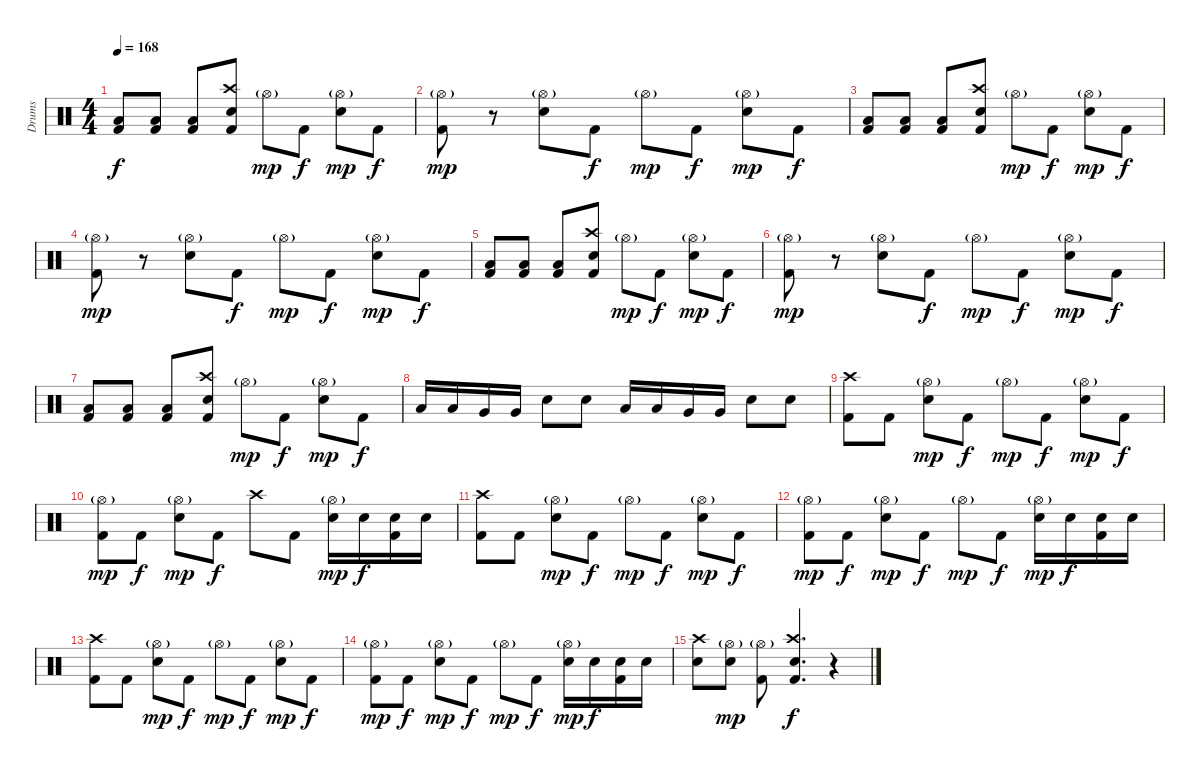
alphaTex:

\track ("Drums" "Drums") {instrument percussion}
\staff {score}
\articulation defaults
\ts (4 4)
\tempo 168
\clef neutral
\ks c
("Low Tom (hit)" "Kick (hit) 2").8{dy f} ("Low Tom (hit)" "Kick (hit) 2").8 ("Low Tom (hit)" "Kick (hit) 2").8 ("Crash high (hit)" "Snare (hit) 2" "Kick (hit) 2").8 "Hi-Hat (open)"{g}.8{dy mp} "Kick (hit) 2".8{dy f} ("Hi-Hat (open)"{g} "Snare (hit) 2").8{dy mp} "Kick (hit) 2".8{dy f} |
("Hi-Hat (open)"{g} "Kick (hit) 2").8{dy mp} r.8 ("Hi-Hat (open)"{g} "Snare (hit) 2").8 "Kick (hit) 2".8{dy f} "Hi-Hat (open)"{g}.8{dy mp} "Kick (hit) 2".8{dy f} ("Hi-Hat (open)"{g} "Snare (hit) 2").8{dy mp} "Kick (hit) 2".8{dy f} |
("Low Tom (hit)" "Kick (hit) 2").8 ("Low Tom (hit)" "Kick (hit) 2").8 ("Low Tom (hit)" "Kick (hit) 2").8 ("Crash high (hit)" "Snare (hit) 2" "Kick (hit) 2").8 "Hi-Hat (open)"{g}.8{dy mp} "Kick (hit) 2".8{dy f} ("Hi-Hat (open)"{g} "Snare (hit) 2").8{dy mp} "Kick (hit) 2".8{dy f} |
("Hi-Hat (open)"{g} "Kick (hit) 2").8{dy mp} r.8 ("Hi-Hat (open)"{g} "Snare (hit) 2").8 "Kick (hit) 2".8{dy f} "Hi-Hat (open)"{g}.8{dy mp} "Kick (hit) 2".8{dy f} ("Hi-Hat (open)"{g} "Snare (hit) 2").8{dy mp} "Kick (hit) 2".8{dy f} |
("Low Tom (hit)" "Kick (hit) 2").8 ("Low Tom (hit)" "Kick (hit) 2").8 ("Low Tom (hit)" "Kick (hit) 2").8 ("Crash high (hit)" "Snare (hit) 2" "Kick (hit) 2").8 "Hi-Hat (open)"{g}.8{dy mp} "Kick (hit) 2".8{dy f} ("Hi-Hat (open)"{g} "Snare (hit) 2").8{dy mp} "Kick (hit) 2".8{dy f} |
("Hi-Hat (open)"{g} "Kick (hit) 2").8{dy mp} r.8 ("Hi-Hat (open)"{g} "Snare (hit) 2").8 "Kick (hit) 2".8{dy f} "Hi-Hat (open)"{g}.8{dy mp} "Kick (hit) 2".8{dy f} ("Hi-Hat (open)"{g} "Snare (hit) 2").8{dy mp} "Kick (hit) 2".8{dy f} |
("Low Tom (hit)" "Kick (hit) 2").8 ("Low Tom (hit)" "Kick (hit) 2").8 ("Low Tom (hit)" "Kick (hit) 2").8 ("Crash high (hit)" "Snare (hit) 2" "Kick (hit) 2").8 "Hi-Hat (open)"{g}.8{dy mp} "Kick (hit) 2".8{dy f} ("Hi-Hat (open)"{g} "Snare (hit) 2").8{dy mp} "Kick (hit) 2".8{dy f} |
"Low Tom (hit)".16 "Low Tom (hit)".16 "Very Low Tom (hit)".16 "Very Low Tom (hit)".16 "Snare (hit) 2".8 "Snare (hit) 2".8 "Low Tom (hit)".16 "Low Tom (hit)".16 "Very Low Tom (hit)".16 "Very Low Tom (hit)".16 "Snare (hit) 2".8 "Snare (hit) 2".8 |
("Crash high (hit)" "Kick (hit) 2").8 "Kick (hit) 2".8 ("Hi-Hat (open)"{g} "Snare (hit) 2").8{dy mp} "Kick (hit) 2".8{dy f} "Hi-Hat (open)"{g}.8{dy mp} "Kick (hit) 2".8{dy f} ("Hi-Hat (open)"{g} "Snare (hit) 2").8{dy mp} "Kick (hit) 2".8{dy f} |
("Hi-Hat (open)"{g} "Kick (hit) 2").8{dy mp} "Kick (hit) 2".8{dy f} ("Hi-Hat (open)"{g} "Snare (hit) 2").8{dy mp} "Kick (hit) 2".8{dy f} "Crash high (hit)".8 "Kick (hit) 2".8 ("Hi-Hat (open)"{g} "Snare (hit) 2").16{dy mp} "Snare (hit) 2".16{dy f} ("Snare (hit) 2" "Kick (hit) 2").16 "Snare (hit) 2".16 |
("Crash high (hit)" "Kick (hit) 2").8 "Kick (hit) 2".8 ("Hi-Hat (open)"{g} "Snare (hit) 2").8{dy mp} "Kick (hit) 2".8{dy f} "Hi-Hat (open)"{g}.8{dy mp} "Kick (hit) 2".8{dy f} ("Hi-Hat (open)"{g} "Snare (hit) 2").8{dy mp} "Kick (hit) 2".8{dy f} |
("Hi-Hat (open)"{g} "Kick (hit) 2").8{dy mp} "Kick (hit) 2".8{dy f} ("Hi-Hat (open)"{g} "Snare (hit) 2").8{dy mp} "Kick (hit) 2".8{dy f} "Hi-Hat (open)"{g}.8{dy mp} "Kick (hit) 2".8{dy f} ("Hi-Hat (open)"{g} "Snare (hit) 2").16{dy mp} "Snare (hit) 2".16{dy f} ("Snare (hit) 2" "Kick (hit) 2").16 "Snare (hit) 2".16 |
("Crash high (hit)" "Kick (hit) 2").8 "Kick (hit) 2".8 ("Hi-Hat (open)"{g} "Snare (hit) 2").8{dy mp} "Kick (hit) 2".8{dy f} "Hi-Hat (open)"{g}.8{dy mp} "Kick (hit) 2".8{dy f} ("Hi-Hat (open)"{g} "Snare (hit) 2").8{dy mp} "Kick (hit) 2".8{dy f} |
("Hi-Hat (open)"{g} "Kick (hit) 2").8{dy mp} "Kick (hit) 2".8{dy f} ("Hi-Hat (open)"{g} "Snare (hit) 2").8{dy mp} "Kick (hit) 2".8{dy f} "Hi-Hat (open)"{g}.8{dy mp} "Kick (hit) 2".8{dy f} ("Hi-Hat (open)"{g} "Snare (hit) 2").16{dy mp} "Snare (hit) 2".16{dy f} ("Snare (hit) 2" "Kick (hit) 2").16 "Snare (hit) 2".16 |
("Crash high (hit)" "Snare (hit) 2").8 ("Hi-Hat (open)"{g} "Snare (hit) 2").8{dy mp} ("Hi-Hat (open)"{g} "Kick (hit) 2").8 ("Crash high (hit)" "Snare (hit) 2" "Kick (hit) 2").4{d dy f} r.4
